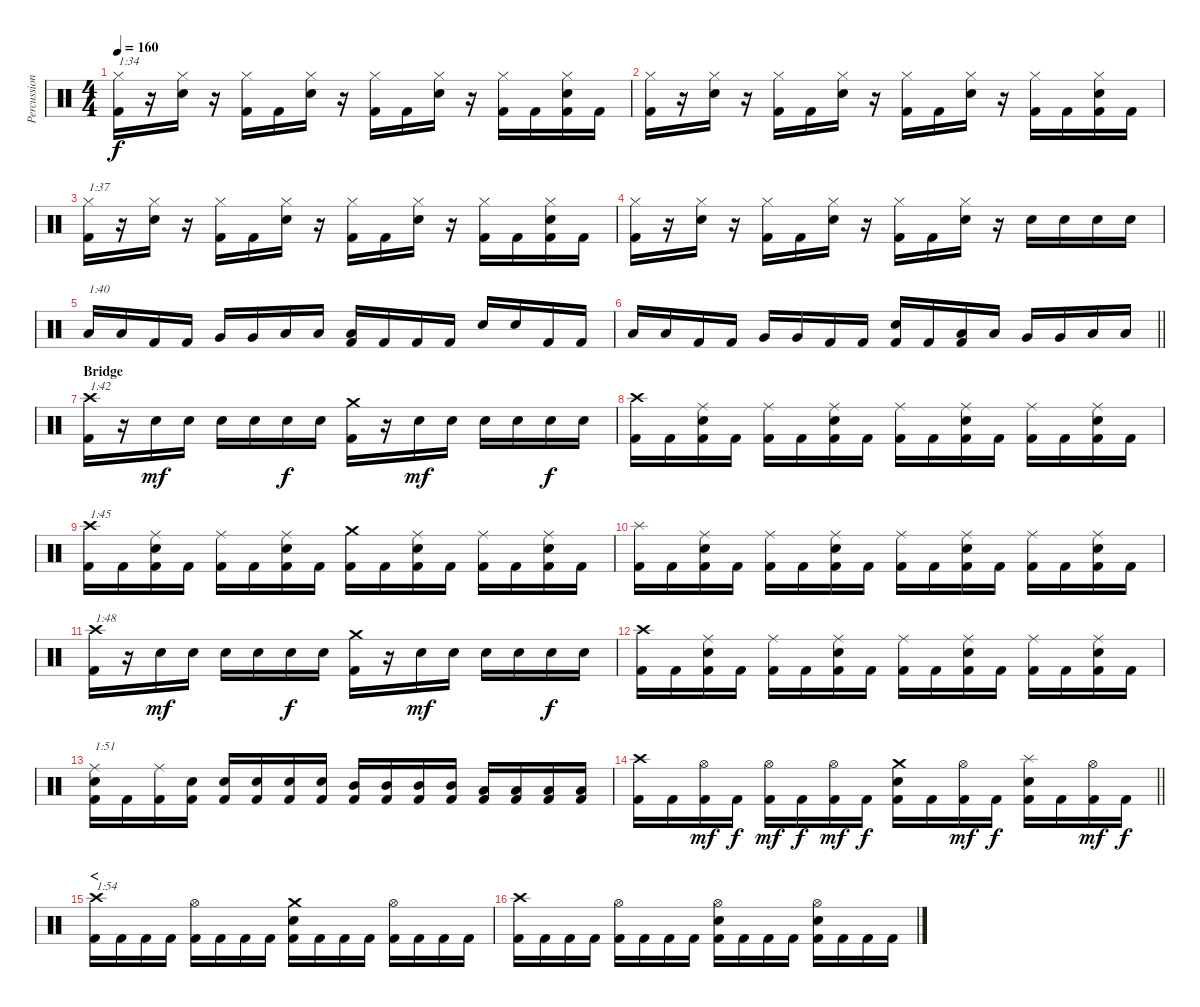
\track ("Percussion" "Percussion") {instrument percussion}
\staff {score}
\articulation defaults
\ts (4 4)
\tempo 160
\clef neutral
\ks c
("Hi-Hat (closed)" "Kick (hit) 2").16{txt "1:34" dy f} r.16 ("Hi-Hat (closed)" "Electric Snare (hit)").16 r.16 ("Hi-Hat (closed)" "Kick (hit) 2").16 "Kick (hit) 2".16 ("Hi-Hat (closed)" "Electric Snare (hit)").16 r.16 ("Hi-Hat (closed)" "Kick (hit) 2").16 "Kick (hit) 2".16 ("Hi-Hat (closed)" "Electric Snare (hit)").16 r.16 ("Hi-Hat (closed)" "Kick (hit) 2").16 "Kick (hit) 2".16 ("Hi-Hat (closed)" "Electric Snare (hit)" "Kick (hit) 2").16 "Kick (hit) 2".16 |
("Hi-Hat (closed)" "Kick (hit) 2").16 r.16 ("Hi-Hat (closed)" "Electric Snare (hit)").16 r.16 ("Hi-Hat (closed)" "Kick (hit) 2").16 "Kick (hit) 2".16 ("Hi-Hat (closed)" "Electric Snare (hit)").16 r.16 ("Hi-Hat (closed)" "Kick (hit) 2").16 "Kick (hit) 2".16 ("Hi-Hat (closed)" "Electric Snare (hit)").16 r.16 ("Hi-Hat (closed)" "Kick (hit) 2").16 "Kick (hit) 2".16 ("Hi-Hat (closed)" "Electric Snare (hit)" "Kick (hit) 2").16 "Kick (hit) 2".16 |
("Hi-Hat (closed)" "Kick (hit) 2").16{txt "1:37"} r.16 ("Hi-Hat (closed)" "Electric Snare (hit)").16 r.16 ("Hi-Hat (closed)" "Kick (hit) 2").16 "Kick (hit) 2".16 ("Hi-Hat (closed)" "Electric Snare (hit)").16 r.16 ("Hi-Hat (closed)" "Kick (hit) 2").16 "Kick (hit) 2".16 ("Hi-Hat (closed)" "Electric Snare (hit)").16 r.16 ("Hi-Hat (closed)" "Kick (hit) 2").16 "Kick (hit) 2".16 ("Hi-Hat (closed)" "Electric Snare (hit)" "Kick (hit) 2").16 "Kick (hit) 2".16 |
("Hi-Hat (closed)" "Kick (hit) 2").16 r.16 ("Hi-Hat (closed)" "Electric Snare (hit)").16 r.16 ("Hi-Hat (closed)" "Kick (hit) 2").16 "Kick (hit) 2".16 ("Hi-Hat (closed)" "Electric Snare (hit)").16 r.16 ("Hi-Hat (closed)" "Kick (hit) 2").16 "Kick (hit) 2".16 ("Hi-Hat (closed)" "Electric Snare (hit)").16 r.16 "Electric Snare (hit)".16 "Electric Snare (hit)".16 "Electric Snare (hit)".16 "Electric Snare (hit)".16 |
"Low Floor Tom (hit)".16{txt "1:40"} "Low Floor Tom (hit)".16 "Kick (hit) 2".16 "Kick (hit) 2".16 "Very Low Tom (hit)".16 "Very Low Tom (hit)".16 "Low Floor Tom (hit)".16 "Low Floor Tom (hit)".16 ("Low Floor Tom (hit)" "Kick (hit) 2").16 "Kick (hit) 2".16 "Kick (hit) 2".16 "Kick (hit) 2".16 "Electric Snare (hit)".16 "Electric Snare (hit)".16 "Kick (hit) 2".16 "Kick (hit) 2".16 |
\barLineRight lightlight "Low Tom (hit)".16 "Low Tom (hit)".16 "Kick (hit) 2".16 "Kick (hit) 2".16 "Very Low Tom (hit)".16 "Very Low Tom (hit)".16 "Kick (hit) 2".16 "Kick (hit) 2".16
("Electric Snare (hit)" "Kick (hit) 2").16 "Kick (hit) 2".16 ("Low Tom (hit)" "Kick (hit) 2").16 "Low Tom (hit)".16 "Very Low Tom (hit)".16 "Very Low Tom (hit)".16 "Low Floor Tom (hit)".16 "Low Floor Tom (hit)".16 |
\section ("" "Bridge")
("Crash high (hit)" "Kick (hit) 2").16{txt "1:42"} r.16 "Electric Snare (hit)".16{dy mf} "Electric Snare (hit)".16 "Electric Snare (hit)".16 "Electric Snare (hit)".16 "Electric Snare (hit)".16{dy f} "Electric Snare (hit)".16 ("Crash medium (hit)" "Kick (hit) 2").16 r.16 "Electric Snare (hit)".16{dy mf} "Electric Snare (hit)".16 "Electric Snare (hit)".16 "Electric Snare (hit)".16 "Electric Snare (hit)".16{dy f} "Electric Snare (hit)".16 |
("Crash high (hit)" "Kick (hit) 2").16 "Kick (hit) 2".16 ("Ride (middle)" "Electric Snare (hit)" "Kick (hit) 2").16 "Kick (hit) 2".16 ("Ride (middle)" "Kick (hit) 2").16 "Kick (hit) 2".16 ("Ride (middle)" "Electric Snare (hit)" "Kick (hit) 2").16 "Kick (hit) 2".16 ("Ride (middle)" "Kick (hit) 2").16 "Kick (hit) 2".16 ("Ride (middle)" "Electric Snare (hit)" "Kick (hit) 2").16 "Kick (hit) 2".16 ("Ride (middle)" "Kick (hit) 2").16 "Kick (hit) 2".16 ("Ride (middle)" "Electric Snare (hit)" "Kick (hit) 2").16 "Kick (hit) 2".16 |
("Crash high (hit)" "Kick (hit) 2").16{txt "1:45"} "Kick (hit) 2".16 ("Ride (middle)" "Electric Snare (hit)" "Kick (hit) 2").16 "Kick (hit) 2".16 ("Ride (middle)" "Kick (hit) 2").16 "Kick (hit) 2".16 ("Ride (middle)" "Electric Snare (hit)" "Kick (hit) 2").16 "Kick (hit) 2".16 ("Crash medium (hit)" "Kick (hit) 2").16 "Kick (hit) 2".16 ("Ride (middle)" "Electric Snare (hit)" "Kick (hit) 2").16 "Kick (hit) 2".16 ("Ride (middle)" "Kick (hit) 2").16 "Kick (hit) 2".16 ("Ride (middle)" "Electric Snare (hit)" "Kick (hit) 2").16 "Kick (hit) 2".16 |
("Splash (hit)" "Kick (hit) 2").16 "Kick (hit) 2".16 ("Ride (middle)" "Electric Snare (hit)" "Kick (hit) 2").16 "Kick (hit) 2".16 ("Ride (middle)" "Kick (hit) 2").16 "Kick (hit) 2".16 ("Ride (middle)" "Electric Snare (hit)" "Kick (hit) 2").16 "Kick (hit) 2".16 ("Ride (middle)" "Kick (hit) 2").16 "Kick (hit) 2".16 ("Ride (middle)" "Electric Snare (hit)" "Kick (hit) 2").16 "Kick (hit) 2".16 ("Ride (middle)" "Kick (hit) 2").16 "Kick (hit) 2".16 ("Ride (middle)" "Electric Snare (hit)" "Kick (hit) 2").16 "Kick (hit) 2".16 |
("Crash high (hit)" "Kick (hit) 2").16{txt "1:48"} r.16 "Electric Snare (hit)".16{dy mf} "Electric Snare (hit)".16 "Electric Snare (hit)".16 "Electric Snare (hit)".16 "Electric Snare (hit)".16{dy f} "Electric Snare (hit)".16 ("Crash medium (hit)" "Kick (hit) 2").16 r.16 "Electric Snare (hit)".16{dy mf} "Electric Snare (hit)".16 "Electric Snare (hit)".16 "Electric Snare (hit)".16 "Electric Snare (hit)".16{dy f} "Electric Snare (hit)".16 |
("Crash high (hit)" "Kick (hit) 2").16 "Kick (hit) 2".16 ("Ride (middle)" "Electric Snare (hit)" "Kick (hit) 2").16 "Kick (hit) 2".16 ("Ride (middle)" "Kick (hit) 2").16 "Kick (hit) 2".16 ("Ride (middle)" "Electric Snare (hit)" "Kick (hit) 2").16 "Kick (hit) 2".16 ("Ride (middle)" "Kick (hit) 2").16 "Kick (hit) 2".16 ("Ride (middle)" "Electric Snare (hit)" "Kick (hit) 2").16 "Kick (hit) 2".16 ("Ride (middle)" "Kick (hit) 2").16 "Kick (hit) 2".16 ("Ride (middle)" "Electric Snare (hit)" "Kick (hit) 2").16 "Kick (hit) 2".16 |
("Ride (middle)" "Electric Snare (hit)" "Kick (hit) 2").16{txt "1:51"} "Kick (hit) 2".16 ("Ride (middle)" "Kick (hit) 2").16 ("Electric Snare (hit)" "Kick (hit) 2").16 ("Electric Snare (hit)" "Kick (hit) 2").16 ("Electric Snare (hit)" "Kick (hit) 2").16 ("Electric Snare (hit)" "Kick (hit) 2").16 ("Electric Snare (hit)" "Kick (hit) 2").16 ("Mid Tom (hit)" "Kick (hit) 2").16 ("Mid Tom (hit)" "Kick (hit) 2").16 ("Mid Tom (hit)" "Kick (hit) 2").16 ("Mid Tom (hit)" "Kick (hit) 2").16 ("Low Tom (hit)" "Kick (hit) 2").16 ("Low Tom (hit)" "Kick (hit) 2").16 ("Low Tom (hit)" "Kick (hit) 2").16 ("Low Tom (hit)" "Kick (hit) 2").16 |
\barLineRight lightlight
("Crash high (hit)" "Kick (hit) 2").16 "Kick (hit) 2".16 ("Hi-Hat (open)" "Kick (hit) 2").16{dy mf} "Kick (hit) 2".16{dy f} ("Hi-Hat (open)" "Kick (hit) 2").16{dy mf} "Kick (hit) 2".16{dy f} ("Hi-Hat (open)" "Kick (hit) 2").16{dy mf} "Kick (hit) 2".16{dy f} ("Crash medium (hit)" "Electric Snare (hit)" "Kick (hit) 2").16 "Kick (hit) 2".16 ("Hi-Hat (open)" "Kick (hit) 2").16{dy mf} "Kick (hit) 2".16{dy f} ("Splash (hit)" "Electric Snare (hit)" "Kick (hit) 2").16 "Kick (hit) 2".16 ("Hi-Hat (open)" "Kick (hit) 2").16{dy mf} "Kick (hit) 2".16{dy f} |
\section ("" "<")
("Crash high (hit)" "Kick (hit) 2").16{txt "1:54"} "Kick (hit) 2".16 "Kick (hit) 2".16 "Kick (hit) 2".16 ("Hi-Hat (open)" "Kick (hit) 2").16 "Kick (hit) 2".16 "Kick (hit) 2".16 "Kick (hit) 2".16 ("Crash medium (hit)" "Electric Snare (hit)" "Kick (hit) 2").16 "Kick (hit) 2".16 "Kick (hit) 2".16 "Kick (hit) 2".16 ("Hi-Hat (open)" "Kick (hit) 2").16 "Kick (hit) 2".16 "Kick (hit) 2".16 "Kick (hit) 2".16 |
("Crash high (hit)" "Kick (hit) 2").16 "Kick (hit) 2".16 "Kick (hit) 2".16 "Kick (hit) 2".16 ("Hi-Hat (open)" "Kick (hit) 2").16 "Kick (hit) 2".16 "Kick (hit) 2".16 "Kick (hit) 2".16 ("Hi-Hat (open)" "Electric Snare (hit)" "Kick (hit) 2").16 "Kick (hit) 2".16 "Kick (hit) 2".16 "Kick (hit) 2".16 ("Hi-Hat (open)" "Electric Snare (hit)" "Kick (hit) 2").16 "Kick (hit) 2".16 "Kick (hit) 2".16 "Kick (hit) 2".16
